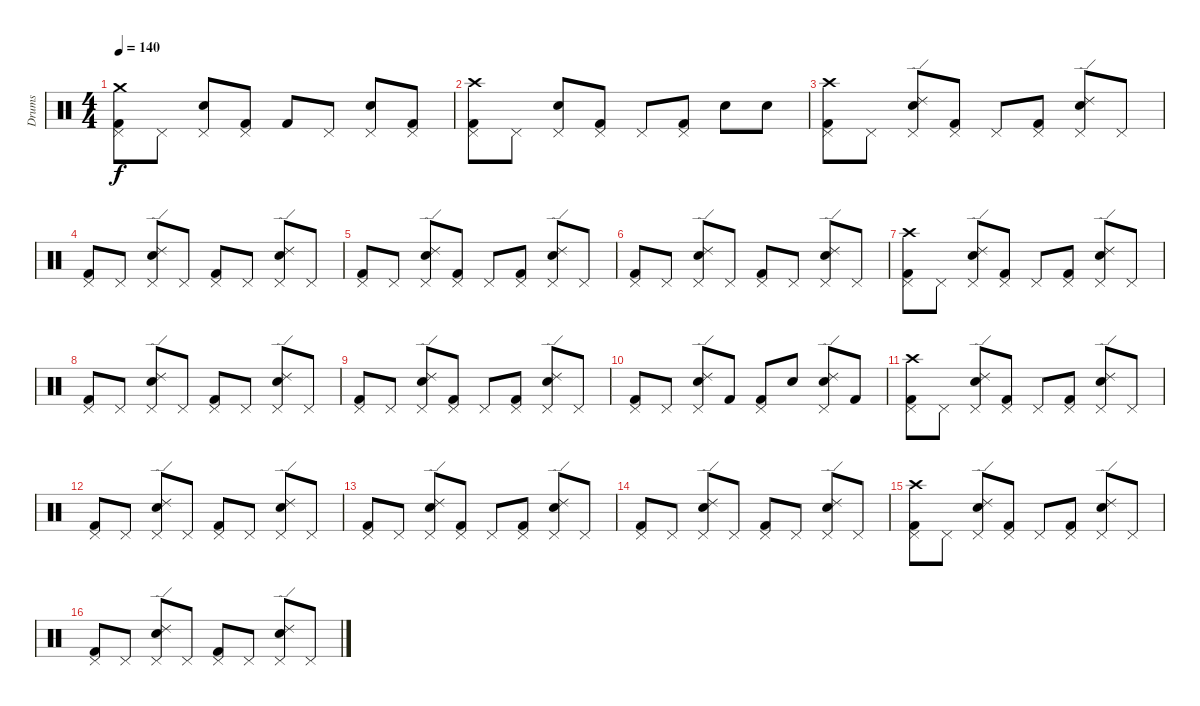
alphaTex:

\track ("Drums" "Drums") {instrument percussion}
\staff {score}
\articulation defaults
\ts (4 4)
\tempo 140
\clef neutral
\ks c
("Kick (hit) 2" "Pedal Hi-Hat (hit)" "Crash medium (hit)").8{dy f} "Pedal Hi-Hat (hit)".8 ("Snare (hit) 2" "Pedal Hi-Hat (hit)").8 ("Kick (hit) 2" "Pedal Hi-Hat (hit)").8 "Kick (hit) 2".8 "Pedal Hi-Hat (hit)".8 ("Snare (hit) 2" "Pedal Hi-Hat (hit)").8 ("Kick (hit) 2" "Pedal Hi-Hat (hit)").8 |
("Kick (hit) 2" "Pedal Hi-Hat (hit)" "Crash high (hit)").8 "Pedal Hi-Hat (hit)".8 ("Snare (hit) 2" "Pedal Hi-Hat (hit)").8 ("Kick (hit) 2" "Pedal Hi-Hat (hit)").8 "Pedal Hi-Hat (hit)".8 ("Kick (hit) 2" "Pedal Hi-Hat (hit)").8 "Snare (hit) 2".8 "Snare (hit) 2".8 |
("Kick (hit) 2" "Pedal Hi-Hat (hit)" "Crash high (hit)").8 "Pedal Hi-Hat (hit)".8 ("Snare (hit) 2" "Pedal Hi-Hat (hit)" "Ride (edge) 2").8 ("Kick (hit) 2" "Pedal Hi-Hat (hit)").8 "Pedal Hi-Hat (hit)".8 ("Kick (hit) 2" "Pedal Hi-Hat (hit)").8 ("Snare (hit) 2" "Pedal Hi-Hat (hit)" "Ride (edge) 2").8 "Pedal Hi-Hat (hit)".8 |
("Kick (hit) 2" "Pedal Hi-Hat (hit)").8 "Pedal Hi-Hat (hit)".8 ("Snare (hit) 2" "Pedal Hi-Hat (hit)" "Ride (edge) 2").8 "Pedal Hi-Hat (hit)".8 ("Kick (hit) 2" "Pedal Hi-Hat (hit)").8 "Pedal Hi-Hat (hit)".8 ("Snare (hit) 2" "Pedal Hi-Hat (hit)" "Ride (edge) 2").8 "Pedal Hi-Hat (hit)".8 |
("Kick (hit) 2" "Pedal Hi-Hat (hit)").8 "Pedal Hi-Hat (hit)".8 ("Snare (hit) 2" "Pedal Hi-Hat (hit)" "Ride (edge) 2").8 ("Kick (hit) 2" "Pedal Hi-Hat (hit)").8 "Pedal Hi-Hat (hit)".8 ("Kick (hit) 2" "Pedal Hi-Hat (hit)").8 ("Snare (hit) 2" "Pedal Hi-Hat (hit)" "Ride (edge) 2").8 "Pedal Hi-Hat (hit)".8 |
("Kick (hit) 2" "Pedal Hi-Hat (hit)").8 "Pedal Hi-Hat (hit)".8 ("Snare (hit) 2" "Pedal Hi-Hat (hit)" "Ride (edge) 2").8 "Pedal Hi-Hat (hit)".8 ("Kick (hit) 2" "Pedal Hi-Hat (hit)").8 "Pedal Hi-Hat (hit)".8 ("Snare (hit) 2" "Pedal Hi-Hat (hit)" "Ride (edge) 2").8 "Pedal Hi-Hat (hit)".8 |
("Kick (hit) 2" "Pedal Hi-Hat (hit)" "Crash high (hit)").8 "Pedal Hi-Hat (hit)".8 ("Snare (hit) 2" "Pedal Hi-Hat (hit)" "Ride (edge) 2").8 ("Kick (hit) 2" "Pedal Hi-Hat (hit)").8 "Pedal Hi-Hat (hit)".8 ("Kick (hit) 2" "Pedal Hi-Hat (hit)").8 ("Snare (hit) 2" "Pedal Hi-Hat (hit)" "Ride (edge) 2").8 "Pedal Hi-Hat (hit)".8 |
("Kick (hit) 2" "Pedal Hi-Hat (hit)").8 "Pedal Hi-Hat (hit)".8 ("Snare (hit) 2" "Pedal Hi-Hat (hit)" "Ride (edge) 2").8 "Pedal Hi-Hat (hit)".8 ("Kick (hit) 2" "Pedal Hi-Hat (hit)").8 "Pedal Hi-Hat (hit)".8 ("Snare (hit) 2" "Pedal Hi-Hat (hit)" "Ride (edge) 2").8 "Pedal Hi-Hat (hit)".8 |
("Kick (hit) 2" "Pedal Hi-Hat (hit)").8 "Pedal Hi-Hat (hit)".8 ("Snare (hit) 2" "Pedal Hi-Hat (hit)" "Ride (edge) 2").8 ("Kick (hit) 2" "Pedal Hi-Hat (hit)").8 "Pedal Hi-Hat (hit)".8 ("Kick (hit) 2" "Pedal Hi-Hat (hit)").8 ("Snare (hit) 2" "Pedal Hi-Hat (hit)" "Ride (edge) 2").8 "Pedal Hi-Hat (hit)".8 |
("Kick (hit) 2" "Pedal Hi-Hat (hit)").8 "Pedal Hi-Hat (hit)".8 ("Snare (hit) 2" "Pedal Hi-Hat (hit)" "Ride (edge) 2").8 "Kick (hit) 2".8 ("Kick (hit) 2" "Pedal Hi-Hat (hit)").8 "Snare (hit) 2".8 ("Snare (hit) 2" "Pedal Hi-Hat (hit)" "Ride (edge) 2").8 "Kick (hit) 2".8 |
("Kick (hit) 2" "Pedal Hi-Hat (hit)" "Crash high (hit)").8 "Pedal Hi-Hat (hit)".8 ("Snare (hit) 2" "Pedal Hi-Hat (hit)" "Ride (edge) 2").8 ("Kick (hit) 2" "Pedal Hi-Hat (hit)").8 "Pedal Hi-Hat (hit)".8 ("Kick (hit) 2" "Pedal Hi-Hat (hit)").8 ("Snare (hit) 2" "Pedal Hi-Hat (hit)" "Ride (edge) 2").8 "Pedal Hi-Hat (hit)".8 |
("Kick (hit) 2" "Pedal Hi-Hat (hit)").8 "Pedal Hi-Hat (hit)".8 ("Snare (hit) 2" "Pedal Hi-Hat (hit)" "Ride (edge) 2").8 "Pedal Hi-Hat (hit)".8 ("Kick (hit) 2" "Pedal Hi-Hat (hit)").8 "Pedal Hi-Hat (hit)".8 ("Snare (hit) 2" "Pedal Hi-Hat (hit)" "Ride (edge) 2").8 "Pedal Hi-Hat (hit)".8 |
("Kick (hit) 2" "Pedal Hi-Hat (hit)").8 "Pedal Hi-Hat (hit)".8 ("Snare (hit) 2" "Pedal Hi-Hat (hit)" "Ride (edge) 2").8 ("Kick (hit) 2" "Pedal Hi-Hat (hit)").8 "Pedal Hi-Hat (hit)".8 ("Kick (hit) 2" "Pedal Hi-Hat (hit)").8 ("Snare (hit) 2" "Pedal Hi-Hat (hit)" "Ride (edge) 2").8 "Pedal Hi-Hat (hit)".8 |
("Kick (hit) 2" "Pedal Hi-Hat (hit)").8 "Pedal Hi-Hat (hit)".8 ("Snare (hit) 2" "Pedal Hi-Hat (hit)" "Ride (edge) 2").8 "Pedal Hi-Hat (hit)".8 ("Kick (hit) 2" "Pedal Hi-Hat (hit)").8 "Pedal Hi-Hat (hit)".8 ("Snare (hit) 2" "Pedal Hi-Hat (hit)" "Ride (edge) 2").8 "Pedal Hi-Hat (hit)".8 |
("Kick (hit) 2" "Pedal Hi-Hat (hit)" "Crash high (hit)").8 "Pedal Hi-Hat (hit)".8 ("Snare (hit) 2" "Pedal Hi-Hat (hit)" "Ride (edge) 2").8 ("Kick (hit) 2" "Pedal Hi-Hat (hit)").8 "Pedal Hi-Hat (hit)".8 ("Kick (hit) 2" "Pedal Hi-Hat (hit)").8 ("Snare (hit) 2" "Pedal Hi-Hat (hit)" "Ride (edge) 2").8 "Pedal Hi-Hat (hit)".8 |
("Kick (hit) 2" "Pedal Hi-Hat (hit)").8 "Pedal Hi-Hat (hit)".8 ("Snare (hit) 2" "Pedal Hi-Hat (hit)" "Ride (edge) 2").8 "Pedal Hi-Hat (hit)".8 ("Kick (hit) 2" "Pedal Hi-Hat (hit)").8 "Pedal Hi-Hat (hit)".8 ("Snare (hit) 2" "Pedal Hi-Hat (hit)" "Ride (edge) 2").8 "Pedal Hi-Hat (hit)".8
